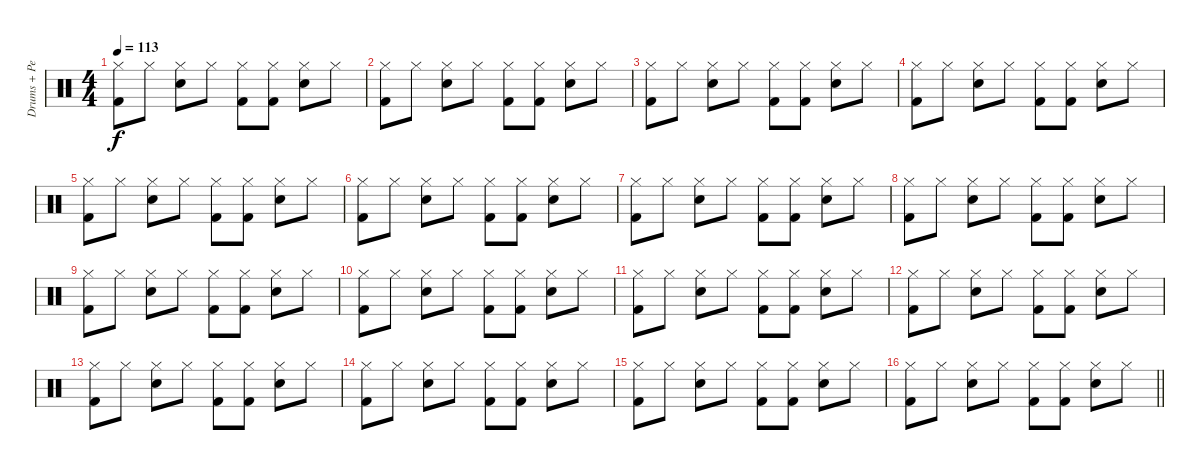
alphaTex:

\track ("Drums + Percussion" "Drums + Pe") {instrument percussion}
\staff {score}
\articulation defaults
\ts (4 4)
\tempo 113
\clef neutral
\ks c
("Hi-Hat (closed)" "Kick (hit) 2").8{dy f} "Hi-Hat (closed)".8 ("Hi-Hat (closed)" "Snare (hit) 2").8 "Hi-Hat (closed)".8 ("Hi-Hat (closed)" "Kick (hit) 2").8 ("Hi-Hat (closed)" "Kick (hit) 2").8 ("Hi-Hat (closed)" "Snare (hit) 2").8 "Hi-Hat (closed)".8 |
("Hi-Hat (closed)" "Kick (hit) 2").8 "Hi-Hat (closed)".8 ("Hi-Hat (closed)" "Snare (hit) 2").8 "Hi-Hat (closed)".8 ("Hi-Hat (closed)" "Kick (hit) 2").8 ("Hi-Hat (closed)" "Kick (hit) 2").8 ("Hi-Hat (closed)" "Snare (hit) 2").8 "Hi-Hat (closed)".8 |
("Hi-Hat (closed)" "Kick (hit) 2").8 "Hi-Hat (closed)".8 ("Hi-Hat (closed)" "Snare (hit) 2").8 "Hi-Hat (closed)".8 ("Hi-Hat (closed)" "Kick (hit) 2").8 ("Hi-Hat (closed)" "Kick (hit) 2").8 ("Hi-Hat (closed)" "Snare (hit) 2").8 "Hi-Hat (closed)".8 |
("Hi-Hat (closed)" "Kick (hit) 2").8 "Hi-Hat (closed)".8 ("Hi-Hat (closed)" "Snare (hit) 2").8 "Hi-Hat (closed)".8 ("Hi-Hat (closed)" "Kick (hit) 2").8 ("Hi-Hat (closed)" "Kick (hit) 2").8 ("Hi-Hat (closed)" "Snare (hit) 2").8 "Hi-Hat (closed)".8 |
("Hi-Hat (closed)" "Kick (hit) 2").8 "Hi-Hat (closed)".8 ("Hi-Hat (closed)" "Snare (hit) 2").8 "Hi-Hat (closed)".8 ("Hi-Hat (closed)" "Kick (hit) 2").8 ("Hi-Hat (closed)" "Kick (hit) 2").8 ("Hi-Hat (closed)" "Snare (hit) 2").8 "Hi-Hat (closed)".8 |
("Hi-Hat (closed)" "Kick (hit) 2").8 "Hi-Hat (closed)".8 ("Hi-Hat (closed)" "Snare (hit) 2").8 "Hi-Hat (closed)".8 ("Hi-Hat (closed)" "Kick (hit) 2").8 ("Hi-Hat (closed)" "Kick (hit) 2").8 ("Hi-Hat (closed)" "Snare (hit) 2").8 "Hi-Hat (closed)".8 |
("Hi-Hat (closed)" "Kick (hit) 2").8 "Hi-Hat (closed)".8 ("Hi-Hat (closed)" "Snare (hit) 2").8 "Hi-Hat (closed)".8 ("Hi-Hat (closed)" "Kick (hit) 2").8 ("Hi-Hat (closed)" "Kick (hit) 2").8 ("Hi-Hat (closed)" "Snare (hit) 2").8 "Hi-Hat (closed)".8 |
("Hi-Hat (closed)" "Kick (hit) 2").8 "Hi-Hat (closed)".8 ("Hi-Hat (closed)" "Snare (hit) 2").8 "Hi-Hat (closed)".8 ("Hi-Hat (closed)" "Kick (hit) 2").8 ("Hi-Hat (closed)" "Kick (hit) 2").8 ("Hi-Hat (closed)" "Snare (hit) 2").8 "Hi-Hat (closed)".8 |
("Hi-Hat (closed)" "Kick (hit) 2").8 "Hi-Hat (closed)".8 ("Hi-Hat (closed)" "Snare (hit) 2").8 "Hi-Hat (closed)".8 ("Hi-Hat (closed)" "Kick (hit) 2").8 ("Hi-Hat (closed)" "Kick (hit) 2").8 ("Hi-Hat (closed)" "Snare (hit) 2").8 "Hi-Hat (closed)".8 |
("Hi-Hat (closed)" "Kick (hit) 2").8 "Hi-Hat (closed)".8 ("Hi-Hat (closed)" "Snare (hit) 2").8 "Hi-Hat (closed)".8 ("Hi-Hat (closed)" "Kick (hit) 2").8 ("Hi-Hat (closed)" "Kick (hit) 2").8 ("Hi-Hat (closed)" "Snare (hit) 2").8 "Hi-Hat (closed)".8 |
("Hi-Hat (closed)" "Kick (hit) 2").8 "Hi-Hat (closed)".8 ("Hi-Hat (closed)" "Snare (hit) 2").8 "Hi-Hat (closed)".8 ("Hi-Hat (closed)" "Kick (hit) 2").8 ("Hi-Hat (closed)" "Kick (hit) 2").8 ("Hi-Hat (closed)" "Snare (hit) 2").8 "Hi-Hat (closed)".8 |
("Hi-Hat (closed)" "Kick (hit) 2").8 "Hi-Hat (closed)".8 ("Hi-Hat (closed)" "Snare (hit) 2").8 "Hi-Hat (closed)".8 ("Hi-Hat (closed)" "Kick (hit) 2").8 ("Hi-Hat (closed)" "Kick (hit) 2").8 ("Hi-Hat (closed)" "Snare (hit) 2").8 "Hi-Hat (closed)".8 |
("Hi-Hat (closed)" "Kick (hit) 2").8 "Hi-Hat (closed)".8 ("Hi-Hat (closed)" "Snare (hit) 2").8 "Hi-Hat (closed)".8 ("Hi-Hat (closed)" "Kick (hit) 2").8 ("Hi-Hat (closed)" "Kick (hit) 2").8 ("Hi-Hat (closed)" "Snare (hit) 2").8 "Hi-Hat (closed)".8 |
("Hi-Hat (closed)" "Kick (hit) 2").8 "Hi-Hat (closed)".8 ("Hi-Hat (closed)" "Snare (hit) 2").8 "Hi-Hat (closed)".8 ("Hi-Hat (closed)" "Kick (hit) 2").8 ("Hi-Hat (closed)" "Kick (hit) 2").8 ("Hi-Hat (closed)" "Snare (hit) 2").8 "Hi-Hat (closed)".8 |
("Hi-Hat (closed)" "Kick (hit) 2").8 "Hi-Hat (closed)".8 ("Hi-Hat (closed)" "Snare (hit) 2").8 "Hi-Hat (closed)".8 ("Hi-Hat (closed)" "Kick (hit) 2").8 ("Hi-Hat (closed)" "Kick (hit) 2").8 ("Hi-Hat (closed)" "Snare (hit) 2").8 "Hi-Hat (closed)".8 |
\barLineRight lightlight
("Hi-Hat (closed)" "Kick (hit) 2").8 "Hi-Hat (closed)".8 ("Hi-Hat (closed)" "Snare (hit) 2").8 "Hi-Hat (closed)".8 ("Hi-Hat (closed)" "Kick (hit) 2").8 ("Hi-Hat (closed)" "Kick (hit) 2").8 ("Hi-Hat (closed)" "Snare (hit) 2").8 "Hi-Hat (closed)".8
